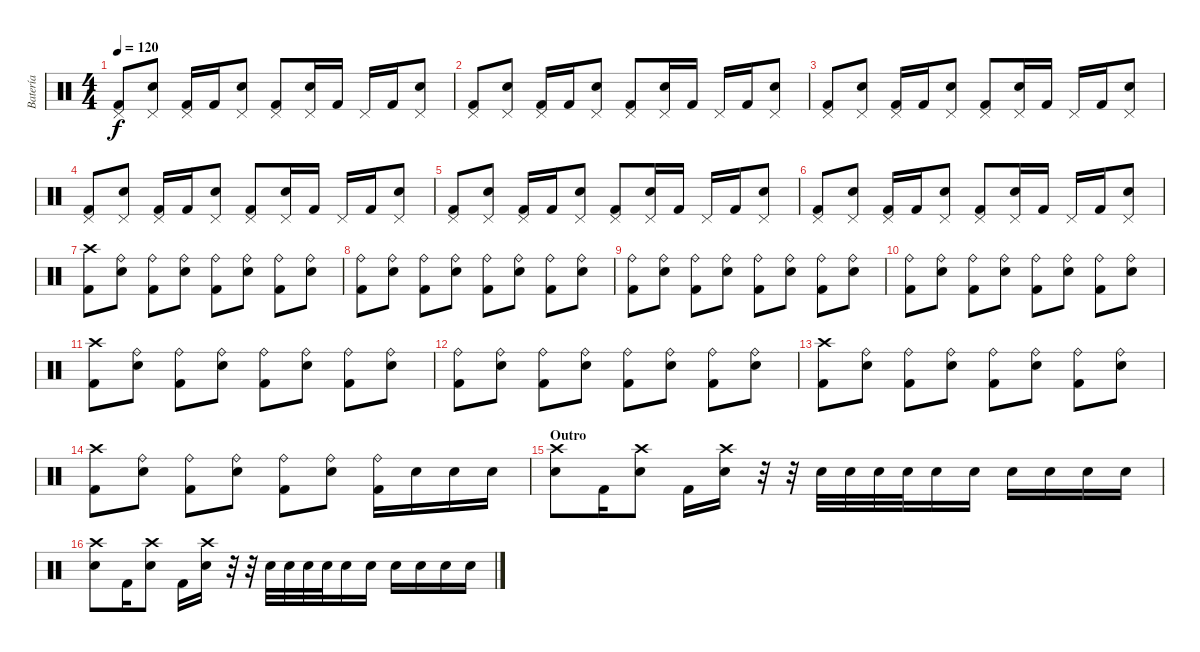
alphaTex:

\track ("Batería" "Batería") {instrument percussion}
\staff {score}
\articulation defaults
\ts (4 4)
\tempo 120
\clef neutral
\ks c
("Pedal Hi-Hat (hit)" "Kick (hit) 2").8{dy f} ("Pedal Hi-Hat (hit)" "Snare (hit) 2").8 ("Pedal Hi-Hat (hit)" "Kick (hit) 2").16 "Kick (hit) 2".16 ("Pedal Hi-Hat (hit)" "Snare (hit) 2").8 ("Pedal Hi-Hat (hit)" "Kick (hit) 2").8 ("Pedal Hi-Hat (hit)" "Snare (hit) 2").16 "Kick (hit) 2".16 "Pedal Hi-Hat (hit)".16 "Kick (hit) 2".16 ("Pedal Hi-Hat (hit)" "Snare (hit) 2").8 |
("Pedal Hi-Hat (hit)" "Kick (hit) 2").8 ("Pedal Hi-Hat (hit)" "Snare (hit) 2").8 ("Pedal Hi-Hat (hit)" "Kick (hit) 2").16 "Kick (hit) 2".16 ("Pedal Hi-Hat (hit)" "Snare (hit) 2").8 ("Pedal Hi-Hat (hit)" "Kick (hit) 2").8 ("Pedal Hi-Hat (hit)" "Snare (hit) 2").16 "Kick (hit) 2".16 "Pedal Hi-Hat (hit)".16 "Kick (hit) 2".16 ("Pedal Hi-Hat (hit)" "Snare (hit) 2").8 |
("Pedal Hi-Hat (hit)" "Kick (hit) 2").8 ("Pedal Hi-Hat (hit)" "Snare (hit) 2").8 ("Pedal Hi-Hat (hit)" "Kick (hit) 2").16 "Kick (hit) 2".16 ("Pedal Hi-Hat (hit)" "Snare (hit) 2").8 ("Pedal Hi-Hat (hit)" "Kick (hit) 2").8 ("Pedal Hi-Hat (hit)" "Snare (hit) 2").16 "Kick (hit) 2".16 "Pedal Hi-Hat (hit)".16 "Kick (hit) 2".16 ("Pedal Hi-Hat (hit)" "Snare (hit) 2").8 |
("Pedal Hi-Hat (hit)" "Kick (hit) 2").8 ("Pedal Hi-Hat (hit)" "Snare (hit) 2").8 ("Pedal Hi-Hat (hit)" "Kick (hit) 2").16 "Kick (hit) 2".16 ("Pedal Hi-Hat (hit)" "Snare (hit) 2").8 ("Pedal Hi-Hat (hit)" "Kick (hit) 2").8 ("Pedal Hi-Hat (hit)" "Snare (hit) 2").16 "Kick (hit) 2".16 "Pedal Hi-Hat (hit)".16 "Kick (hit) 2".16 ("Pedal Hi-Hat (hit)" "Snare (hit) 2").8 |
("Pedal Hi-Hat (hit)" "Kick (hit) 2").8 ("Pedal Hi-Hat (hit)" "Snare (hit) 2").8 ("Pedal Hi-Hat (hit)" "Kick (hit) 2").16 "Kick (hit) 2".16 ("Pedal Hi-Hat (hit)" "Snare (hit) 2").8 ("Pedal Hi-Hat (hit)" "Kick (hit) 2").8 ("Pedal Hi-Hat (hit)" "Snare (hit) 2").16 "Kick (hit) 2".16 "Pedal Hi-Hat (hit)".16 "Kick (hit) 2".16 ("Pedal Hi-Hat (hit)" "Snare (hit) 2").8 |
("Pedal Hi-Hat (hit)" "Kick (hit) 2").8 ("Pedal Hi-Hat (hit)" "Snare (hit) 2").8 ("Pedal Hi-Hat (hit)" "Kick (hit) 2").16 "Kick (hit) 2".16 ("Pedal Hi-Hat (hit)" "Snare (hit) 2").8 ("Pedal Hi-Hat (hit)" "Kick (hit) 2").8 ("Pedal Hi-Hat (hit)" "Snare (hit) 2").16 "Kick (hit) 2".16 "Pedal Hi-Hat (hit)".16 "Kick (hit) 2".16 ("Pedal Hi-Hat (hit)" "Snare (hit) 2").8 |
("Crash high (hit)" "Kick (hit) 2").8 ("Ride (bell)" "Snare (hit) 2").8 ("Ride (bell)" "Kick (hit) 2").8 ("Ride (bell)" "Snare (hit) 2").8 ("Ride (bell)" "Kick (hit) 2").8 ("Ride (bell)" "Snare (hit) 2").8 ("Ride (bell)" "Kick (hit) 2").8 ("Ride (bell)" "Snare (hit) 2").8 |
("Ride (bell)" "Kick (hit) 2").8 ("Ride (bell)" "Snare (hit) 2").8 ("Ride (bell)" "Kick (hit) 2").8 ("Ride (bell)" "Snare (hit) 2").8 ("Ride (bell)" "Kick (hit) 2").8 ("Ride (bell)" "Snare (hit) 2").8 ("Ride (bell)" "Kick (hit) 2").8 ("Ride (bell)" "Snare (hit) 2").8 |
("Ride (bell)" "Kick (hit) 2").8 ("Ride (bell)" "Snare (hit) 2").8 ("Ride (bell)" "Kick (hit) 2").8 ("Ride (bell)" "Snare (hit) 2").8 ("Ride (bell)" "Kick (hit) 2").8 ("Ride (bell)" "Snare (hit) 2").8 ("Ride (bell)" "Kick (hit) 2").8 ("Ride (bell)" "Snare (hit) 2").8 |
("Ride (bell)" "Kick (hit) 2").8 ("Ride (bell)" "Snare (hit) 2").8 ("Ride (bell)" "Kick (hit) 2").8 ("Ride (bell)" "Snare (hit) 2").8 ("Ride (bell)" "Kick (hit) 2").8 ("Ride (bell)" "Snare (hit) 2").8 ("Ride (bell)" "Kick (hit) 2").8 ("Ride (bell)" "Snare (hit) 2").8 |
("Crash high (hit)" "Kick (hit) 2").8 ("Ride (bell)" "Snare (hit) 2").8 ("Ride (bell)" "Kick (hit) 2").8 ("Ride (bell)" "Snare (hit) 2").8 ("Ride (bell)" "Kick (hit) 2").8 ("Ride (bell)" "Snare (hit) 2").8 ("Ride (bell)" "Kick (hit) 2").8 ("Ride (bell)" "Snare (hit) 2").8 |
("Ride (bell)" "Kick (hit) 2").8 ("Ride (bell)" "Snare (hit) 2").8 ("Ride (bell)" "Kick (hit) 2").8 ("Ride (bell)" "Snare (hit) 2").8 ("Ride (bell)" "Kick (hit) 2").8 ("Ride (bell)" "Snare (hit) 2").8 ("Ride (bell)" "Kick (hit) 2").8 ("Ride (bell)" "Snare (hit) 2").8 |
("Crash high (hit)" "Kick (hit) 2").8 ("Ride (bell)" "Snare (hit) 2").8 ("Ride (bell)" "Kick (hit) 2").8 ("Ride (bell)" "Snare (hit) 2").8 ("Ride (bell)" "Kick (hit) 2").8 ("Ride (bell)" "Snare (hit) 2").8 ("Ride (bell)" "Kick (hit) 2").8 ("Ride (bell)" "Snare (hit) 2").8 |
("Crash high (hit)" "Kick (hit) 2").8 ("Ride (bell)" "Snare (hit) 2").8 ("Ride (bell)" "Kick (hit) 2").8 ("Ride (bell)" "Snare (hit) 2").8 ("Ride (bell)" "Kick (hit) 2").8 ("Ride (bell)" "Snare (hit) 2").8 ("Ride (bell)" "Kick (hit) 2").16 "Snare (hit) 2".16 "Snare (hit) 2".16 "Snare (hit) 2".16 |
\section ("" "Outro")
("Snare (hit) 2" "Crash high (hit)").8 "Kick (hit) 2".16 ("Snare (hit) 2" "Crash high (hit)").8 "Kick (hit) 2".16 ("Snare (hit) 2" "Crash high (hit)").16 r.32 r.32 "Snare (hit) 2".32 "Snare (hit) 2".32 "Snare (hit) 2".32 "Snare (hit) 2".32 "Snare (hit) 2".16 "Snare (hit) 2".16 "Snare (hit) 2".16 "Snare (hit) 2".16 "Snare (hit) 2".16 "Snare (hit) 2".16 |
("Snare (hit) 2" "Crash high (hit)").8 "Kick (hit) 2".16 ("Snare (hit) 2" "Crash high (hit)").8 "Kick (hit) 2".16 ("Snare (hit) 2" "Crash high (hit)").16 r.32 r.32 "Snare (hit) 2".32 "Snare (hit) 2".32 "Snare (hit) 2".32 "Snare (hit) 2".32 "Snare (hit) 2".16 "Snare (hit) 2".16 "Snare (hit) 2".16 "Snare (hit) 2".16 "Snare (hit) 2".16 "Snare (hit) 2".16
